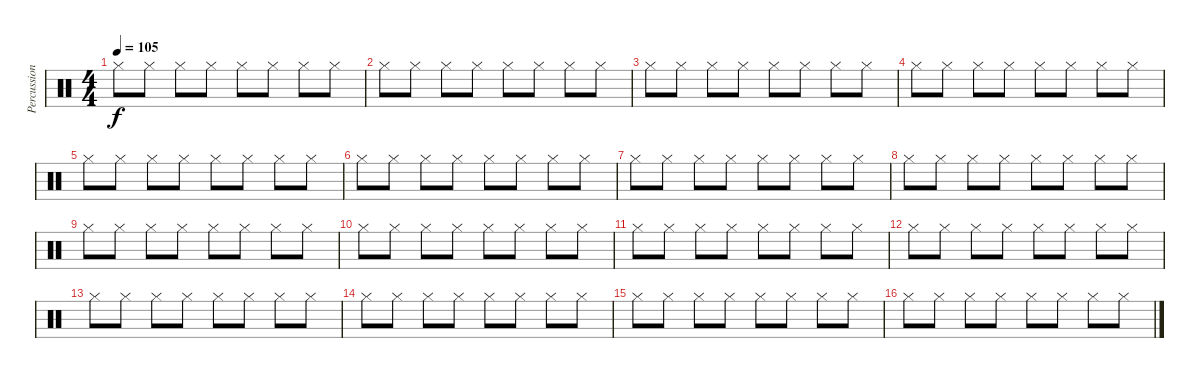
\track ("Percussion" "Percussion") {instrument percussion}
\staff {score}
\articulation defaults
\ts (4 4)
\tempo 105
\clef neutral
\ks c "Hi-Hat (closed)".8{dy f} "Hi-Hat (closed)".8 "Hi-Hat (closed)".8 "Hi-Hat (closed)".8 "Hi-Hat (closed)".8 "Hi-Hat (closed)".8 "Hi-Hat (closed)".8 "Hi-Hat (closed)".8
|
"Hi-Hat (closed)".8 "Hi-Hat (closed)".8 "Hi-Hat (closed)".8 "Hi-Hat (closed)".8 "Hi-Hat (closed)".8 "Hi-Hat (closed)".8 "Hi-Hat (closed)".8 "Hi-Hat (closed)".8 |
"Hi-Hat (closed)".8 "Hi-Hat (closed)".8 "Hi-Hat (closed)".8 "Hi-Hat (closed)".8 "Hi-Hat (closed)".8 "Hi-Hat (closed)".8 "Hi-Hat (closed)".8 "Hi-Hat (closed)".8 |
"Hi-Hat (closed)".8 "Hi-Hat (closed)".8 "Hi-Hat (closed)".8 "Hi-Hat (closed)".8 "Hi-Hat (closed)".8 "Hi-Hat (closed)".8 "Hi-Hat (closed)".8 "Hi-Hat (closed)".8 |
"Hi-Hat (closed)".8 "Hi-Hat (closed)".8 "Hi-Hat (closed)".8 "Hi-Hat (closed)".8 "Hi-Hat (closed)".8 "Hi-Hat (closed)".8 "Hi-Hat (closed)".8 "Hi-Hat (closed)".8 |
"Hi-Hat (closed)".8 "Hi-Hat (closed)".8 "Hi-Hat (closed)".8 "Hi-Hat (closed)".8 "Hi-Hat (closed)".8 "Hi-Hat (closed)".8 "Hi-Hat (closed)".8 "Hi-Hat (closed)".8 |
"Hi-Hat (closed)".8 "Hi-Hat (closed)".8 "Hi-Hat (closed)".8 "Hi-Hat (closed)".8 "Hi-Hat (closed)".8 "Hi-Hat (closed)".8 "Hi-Hat (closed)".8 "Hi-Hat (closed)".8 |
"Hi-Hat (closed)".8 "Hi-Hat (closed)".8 "Hi-Hat (closed)".8 "Hi-Hat (closed)".8 "Hi-Hat (closed)".8 "Hi-Hat (closed)".8 "Hi-Hat (closed)".8 "Hi-Hat (closed)".8 |
"Hi-Hat (closed)".8 "Hi-Hat (closed)".8 "Hi-Hat (closed)".8 "Hi-Hat (closed)".8 "Hi-Hat (closed)".8 "Hi-Hat (closed)".8 "Hi-Hat (closed)".8 "Hi-Hat (closed)".8 |
"Hi-Hat (closed)".8 "Hi-Hat (closed)".8 "Hi-Hat (closed)".8 "Hi-Hat (closed)".8 "Hi-Hat (closed)".8 "Hi-Hat (closed)".8 "Hi-Hat (closed)".8 "Hi-Hat (closed)".8 |
"Hi-Hat (closed)".8 "Hi-Hat (closed)".8 "Hi-Hat (closed)".8 "Hi-Hat (closed)".8 "Hi-Hat (closed)".8 "Hi-Hat (closed)".8 "Hi-Hat (closed)".8 "Hi-Hat (closed)".8 |
"Hi-Hat (closed)".8 "Hi-Hat (closed)".8 "Hi-Hat (closed)".8 "Hi-Hat (closed)".8 "Hi-Hat (closed)".8 "Hi-Hat (closed)".8 "Hi-Hat (closed)".8 "Hi-Hat (closed)".8 |
"Hi-Hat (closed)".8 "Hi-Hat (closed)".8 "Hi-Hat (closed)".8 "Hi-Hat (closed)".8 "Hi-Hat (closed)".8 "Hi-Hat (closed)".8 "Hi-Hat (closed)".8 "Hi-Hat (closed)".8 |
"Hi-Hat (closed)".8 "Hi-Hat (closed)".8 "Hi-Hat (closed)".8 "Hi-Hat (closed)".8 "Hi-Hat (closed)".8 "Hi-Hat (closed)".8 "Hi-Hat (closed)".8 "Hi-Hat (closed)".8 |
"Hi-Hat (closed)".8 "Hi-Hat (closed)".8 "Hi-Hat (closed)".8 "Hi-Hat (closed)".8 "Hi-Hat (closed)".8 "Hi-Hat (closed)".8 "Hi-Hat (closed)".8 "Hi-Hat (closed)".8 |
"Hi-Hat (closed)".8 "Hi-Hat (closed)".8 "Hi-Hat (closed)".8 "Hi-Hat (closed)".8 "Hi-Hat (closed)".8 "Hi-Hat (closed)".8 "Hi-Hat (closed)".8 "Hi-Hat (closed)".8
